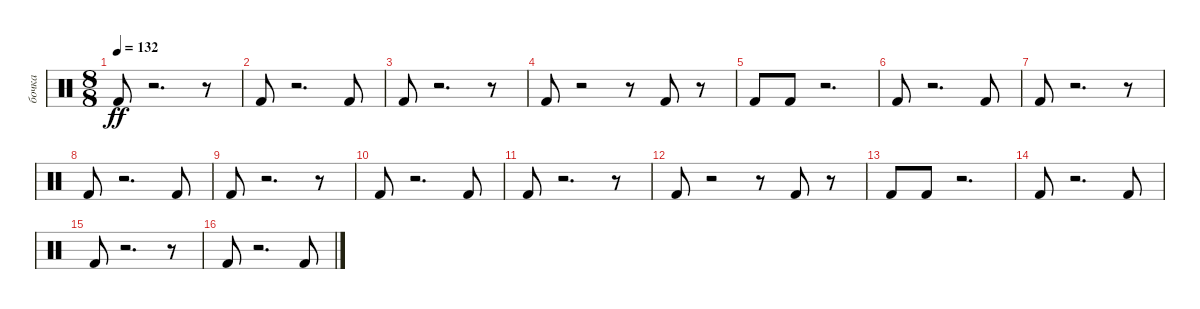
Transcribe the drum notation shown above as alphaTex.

\track ("бочка" "бочка") {instrument percussion}
\staff {score}
\articulation defaults
\ts (8 8)
\tempo 132
\clef neutral
\ks c "Kick (hit) 2".8{dy ff}
r.2{d} r.8 |
"Kick (hit) 2".8 r.2{d} "Kick (hit) 2".8 |
"Kick (hit) 2".8 r.2{d} r.8 |
"Kick (hit) 2".8 r.2 r.8 "Kick (hit) 2".8 r.8 |
"Kick (hit) 2".8 "Kick (hit) 2".8 r.2{d} |
"Kick (hit) 2".8 r.2{d} "Kick (hit) 2".8 |
"Kick (hit) 2".8 r.2{d} r.8 |
"Kick (hit) 2".8 r.2{d} "Kick (hit) 2".8 |
"Kick (hit) 2".8 r.2{d} r.8 |
"Kick (hit) 2".8 r.2{d} "Kick (hit) 2".8 |
"Kick (hit) 2".8 r.2{d} r.8 |
"Kick (hit) 2".8 r.2 r.8 "Kick (hit) 2".8 r.8 |
"Kick (hit) 2".8 "Kick (hit) 2".8 r.2{d} |
"Kick (hit) 2".8 r.2{d} "Kick (hit) 2".8 |
"Kick (hit) 2".8 r.2{d} r.8 |
"Kick (hit) 2".8 r.2{d} "Kick (hit) 2".8
